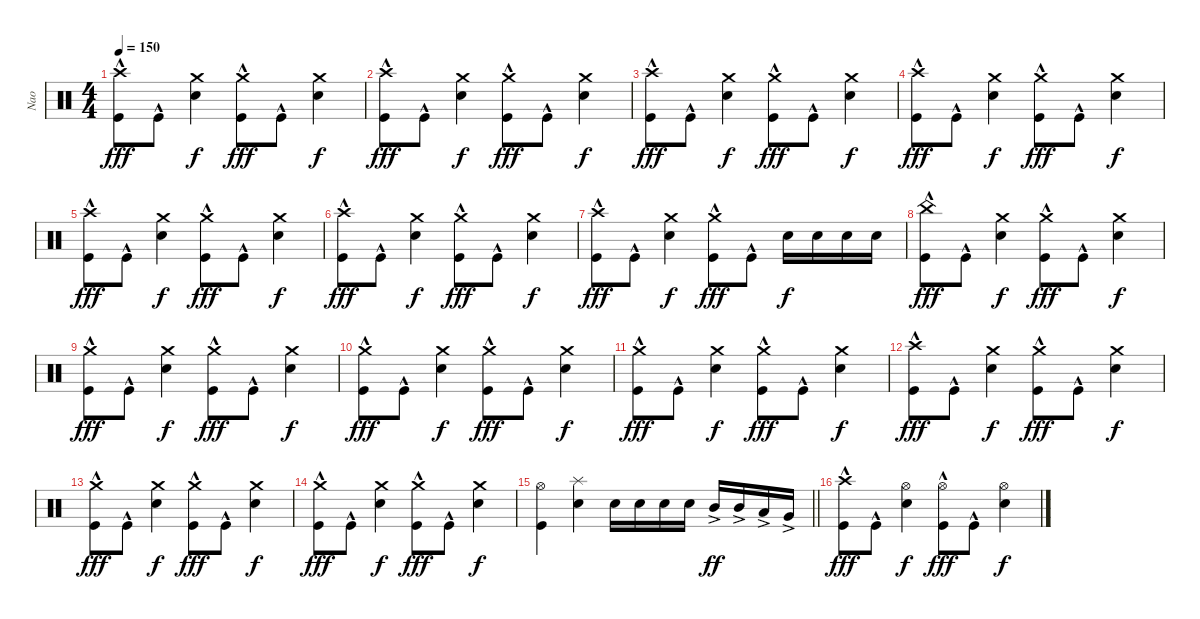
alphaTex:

\track ("Nao" "Nao") {instrument percussion}
\staff {score}
\articulation defaults
\ts (4 4)
\tempo 150
\clef neutral
\ks c
("Crash high (hit)" "Kick (hit)"{hac}).8{dy fff} "Kick (hit)"{hac}.8 ("Crash medium (hit)" "Electric Snare (hit)").4{dy f} ("Crash medium (hit)" "Kick (hit)"{hac}).8{dy fff} "Kick (hit)"{hac}.8 ("Crash medium (hit)" "Electric Snare (hit)").4{dy f} |
("Crash high (hit)" "Kick (hit)"{hac}).8{dy fff} "Kick (hit)"{hac}.8 ("Crash medium (hit)" "Electric Snare (hit)").4{dy f} ("Crash medium (hit)" "Kick (hit)"{hac}).8{dy fff} "Kick (hit)"{hac}.8 ("Crash medium (hit)" "Electric Snare (hit)").4{dy f} |
("Crash high (hit)" "Kick (hit)"{hac}).8{dy fff} "Kick (hit)"{hac}.8 ("Crash medium (hit)" "Electric Snare (hit)").4{dy f} ("Crash medium (hit)" "Kick (hit)"{hac}).8{dy fff} "Kick (hit)"{hac}.8 ("Crash medium (hit)" "Electric Snare (hit)").4{dy f} |
("Crash high (hit)" "Kick (hit)"{hac}).8{dy fff} "Kick (hit)"{hac}.8 ("Crash medium (hit)" "Electric Snare (hit)").4{dy f} ("Crash medium (hit)" "Kick (hit)"{hac}).8{dy fff} "Kick (hit)"{hac}.8 ("Crash medium (hit)" "Electric Snare (hit)").4{dy f} |
("Crash high (hit)" "Kick (hit)"{hac}).8{dy fff} "Kick (hit)"{hac}.8 ("Crash medium (hit)" "Electric Snare (hit)").4{dy f} ("Crash medium (hit)" "Kick (hit)"{hac}).8{dy fff} "Kick (hit)"{hac}.8 ("Crash medium (hit)" "Electric Snare (hit)").4{dy f} |
("Crash high (hit)" "Kick (hit)"{hac}).8{dy fff} "Kick (hit)"{hac}.8 ("Crash medium (hit)" "Electric Snare (hit)").4{dy f} ("Crash medium (hit)" "Kick (hit)"{hac}).8{dy fff} "Kick (hit)"{hac}.8 ("Crash medium (hit)" "Electric Snare (hit)").4{dy f} |
("Crash high (hit)" "Kick (hit)"{hac}).8{dy fff} "Kick (hit)"{hac}.8 ("Crash medium (hit)" "Electric Snare (hit)").4{dy f} ("Crash medium (hit)" "Kick (hit)"{hac}).8{dy fff} "Kick (hit)"{hac}.8 "Electric Snare (hit)".16{dy f} "Electric Snare (hit)".16 "Electric Snare (hit)".16 "Electric Snare (hit)".16 |
("China (hit)" "Kick (hit)"{hac}).8{dy fff} "Kick (hit)"{hac}.8 ("Crash medium (hit)" "Electric Snare (hit)").4{dy f} ("Crash medium (hit)" "Kick (hit)"{hac}).8{dy fff} "Kick (hit)"{hac}.8 ("Crash medium (hit)" "Electric Snare (hit)").4{dy f} |
("Crash medium (hit)" "Kick (hit)"{hac}).8{dy fff} "Kick (hit)"{hac}.8 ("Crash medium (hit)" "Electric Snare (hit)").4{dy f} ("Crash medium (hit)" "Kick (hit)"{hac}).8{dy fff} "Kick (hit)"{hac}.8 ("Crash medium (hit)" "Electric Snare (hit)").4{dy f} |
("Crash medium (hit)" "Kick (hit)"{hac}).8{dy fff} "Kick (hit)"{hac}.8 ("Crash medium (hit)" "Electric Snare (hit)").4{dy f} ("Crash medium (hit)" "Kick (hit)"{hac}).8{dy fff} "Kick (hit)"{hac}.8 ("Crash medium (hit)" "Electric Snare (hit)").4{dy f} |
("Crash medium (hit)" "Kick (hit)"{hac}).8{dy fff} "Kick (hit)"{hac}.8 ("Crash medium (hit)" "Electric Snare (hit)").4{dy f} ("Crash medium (hit)" "Kick (hit)"{hac}).8{dy fff} "Kick (hit)"{hac}.8 ("Crash medium (hit)" "Electric Snare (hit)").4{dy f} |
("Crash high (hit)" "Kick (hit)"{hac}).8{dy fff} "Kick (hit)"{hac}.8 ("Crash medium (hit)" "Electric Snare (hit)").4{dy f} ("Crash medium (hit)" "Kick (hit)"{hac}).8{dy fff} "Kick (hit)"{hac}.8 ("Crash medium (hit)" "Electric Snare (hit)").4{dy f} |
("Crash medium (hit)" "Kick (hit)"{hac}).8{dy fff} "Kick (hit)"{hac}.8 ("Crash medium (hit)" "Electric Snare (hit)").4{dy f} ("Crash medium (hit)" "Kick (hit)"{hac}).8{dy fff} "Kick (hit)"{hac}.8 ("Crash medium (hit)" "Electric Snare (hit)").4{dy f} |
("Crash medium (hit)" "Kick (hit)"{hac}).8{dy fff} "Kick (hit)"{hac}.8 ("Crash medium (hit)" "Electric Snare (hit)").4{dy f} ("Crash medium (hit)" "Kick (hit)"{hac}).8{dy fff} "Kick (hit)"{hac}.8 ("Crash medium (hit)" "Electric Snare (hit)").4{dy f} |
\barLineRight lightlight
("Hi-Hat (open)" "Kick (hit)").4 ("Splash (hit)" "Electric Snare (hit)").4 "Electric Snare (hit)".16 "Electric Snare (hit)".16 "Electric Snare (hit)".16 "Electric Snare (hit)".16 "Mid Tom (hit)"{ac}.16{dy ff} "Mid Tom (hit)"{ac}.16 "Low Tom (hit)"{ac}.16 "Very Low Tom (hit)"{ac}.16 |
\section ("" "")
("Crash high (hit)" "Kick (hit)"{hac}).8{dy fff} "Kick (hit)"{hac}.8 ("Hi-Hat (open)" "Electric Snare (hit)").4{dy f} ("Hi-Hat (open)" "Kick (hit)"{hac}).8{dy fff} "Kick (hit)"{hac}.8 ("Hi-Hat (open)" "Electric Snare (hit)").4{dy f}
